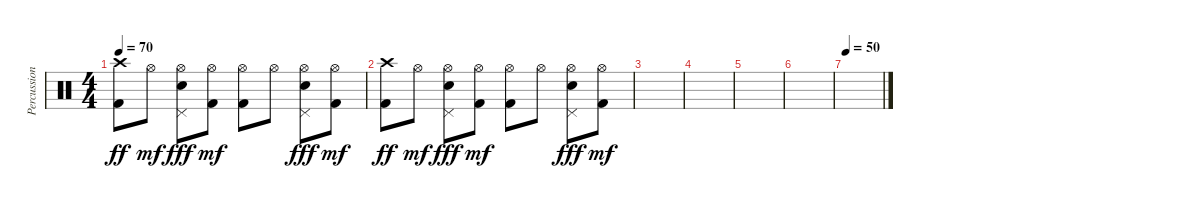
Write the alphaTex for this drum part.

\track ("Percussion" "Percussion") {instrument percussion}
\staff {score}
\articulation defaults
\ts (4 4)
\tempo 70
\clef neutral
\ks c
("Crash high (hit)" "Kick (hit) 2").8{dy ff} "Hi-Hat (open)".8{dy mf} ("Hi-Hat (open)" "Electric Snare (hit)" "Pedal Hi-Hat (hit)").8{dy fff} ("Hi-Hat (open)" "Kick (hit) 2").8{dy mf} ("Hi-Hat (open)" "Kick (hit) 2").8 "Hi-Hat (open)".8 ("Hi-Hat (open)" "Electric Snare (hit)" "Pedal Hi-Hat (hit)").8{dy fff} ("Hi-Hat (open)" "Kick (hit) 2").8{dy mf} |
("Crash high (hit)" "Kick (hit) 2").8{dy ff} "Hi-Hat (open)".8{dy mf} ("Hi-Hat (open)" "Electric Snare (hit)" "Pedal Hi-Hat (hit)").8{dy fff} ("Hi-Hat (open)" "Kick (hit) 2").8{dy mf} ("Hi-Hat (open)" "Kick (hit) 2").8 "Hi-Hat (open)".8 ("Hi-Hat (open)" "Electric Snare (hit)" "Pedal Hi-Hat (hit)").8{dy fff} ("Hi-Hat (open)" "Kick (hit) 2").8{dy mf} |
|
|
|
|
\tempo 50
